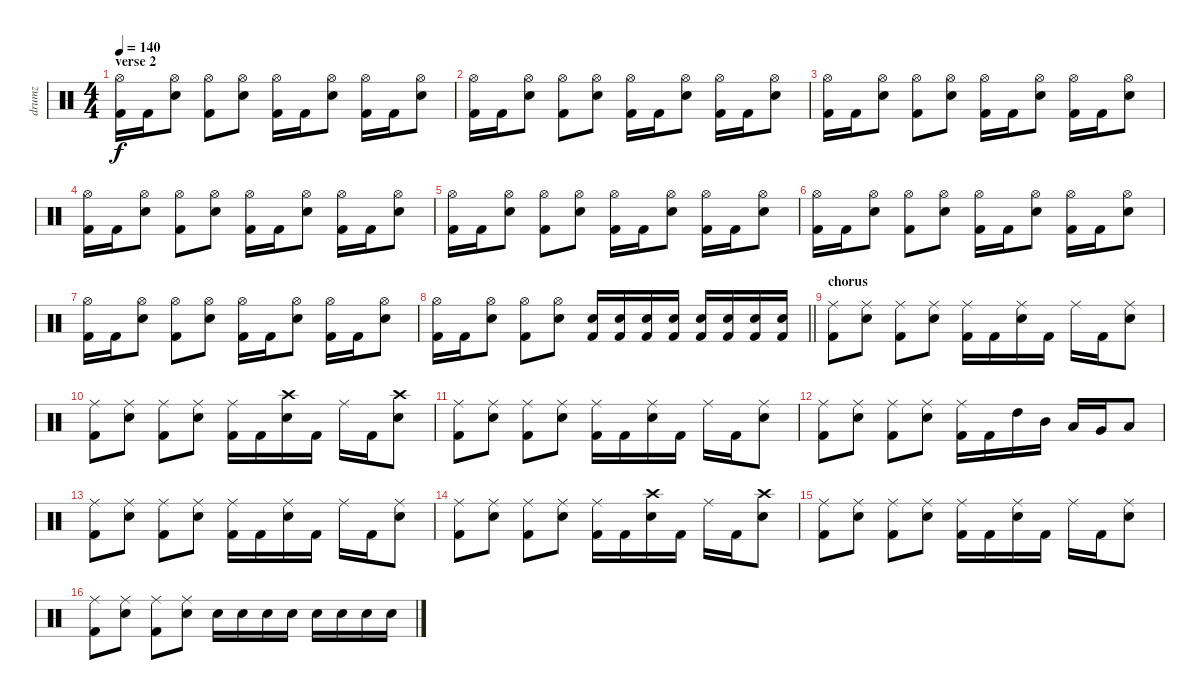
\track ("drumz" "drumz") {instrument percussion}
\staff {score}
\articulation defaults
\ts (4 4)
\section ("" "verse 2")
\tempo 140
\clef neutral
\ks c
("Hi-Hat (open)" "Kick (hit) 2").16{dy f} "Kick (hit) 2".16 ("Hi-Hat (open)" "Electric Snare (hit)").8 ("Hi-Hat (open)" "Kick (hit) 2").8 ("Hi-Hat (open)" "Electric Snare (hit)").8 ("Hi-Hat (open)" "Kick (hit) 2").16 "Kick (hit) 2".16 ("Hi-Hat (open)" "Electric Snare (hit)").8 ("Hi-Hat (open)" "Kick (hit) 2").16 "Kick (hit) 2".16 ("Hi-Hat (open)" "Electric Snare (hit)").8 |
("Hi-Hat (open)" "Kick (hit) 2").16 "Kick (hit) 2".16 ("Hi-Hat (open)" "Electric Snare (hit)").8 ("Hi-Hat (open)" "Kick (hit) 2").8 ("Hi-Hat (open)" "Electric Snare (hit)").8 ("Hi-Hat (open)" "Kick (hit) 2").16 "Kick (hit) 2".16 ("Hi-Hat (open)" "Electric Snare (hit)").8 ("Hi-Hat (open)" "Kick (hit) 2").16 "Kick (hit) 2".16 ("Hi-Hat (open)" "Electric Snare (hit)").8 |
("Hi-Hat (open)" "Kick (hit) 2").16 "Kick (hit) 2".16 ("Hi-Hat (open)" "Electric Snare (hit)").8 ("Hi-Hat (open)" "Kick (hit) 2").8 ("Hi-Hat (open)" "Electric Snare (hit)").8 ("Hi-Hat (open)" "Kick (hit) 2").16 "Kick (hit) 2".16 ("Hi-Hat (open)" "Electric Snare (hit)").8 ("Hi-Hat (open)" "Kick (hit) 2").16 "Kick (hit) 2".16 ("Hi-Hat (open)" "Electric Snare (hit)").8 |
("Hi-Hat (open)" "Kick (hit) 2").16 "Kick (hit) 2".16 ("Hi-Hat (open)" "Electric Snare (hit)").8 ("Hi-Hat (open)" "Kick (hit) 2").8 ("Hi-Hat (open)" "Electric Snare (hit)").8 ("Hi-Hat (open)" "Kick (hit) 2").16 "Kick (hit) 2".16 ("Hi-Hat (open)" "Electric Snare (hit)").8 ("Hi-Hat (open)" "Kick (hit) 2").16 "Kick (hit) 2".16 ("Hi-Hat (open)" "Electric Snare (hit)").8 |
("Hi-Hat (open)" "Kick (hit) 2").16 "Kick (hit) 2".16 ("Hi-Hat (open)" "Electric Snare (hit)").8 ("Hi-Hat (open)" "Kick (hit) 2").8 ("Hi-Hat (open)" "Electric Snare (hit)").8 ("Hi-Hat (open)" "Kick (hit) 2").16 "Kick (hit) 2".16 ("Hi-Hat (open)" "Electric Snare (hit)").8 ("Hi-Hat (open)" "Kick (hit) 2").16 "Kick (hit) 2".16 ("Hi-Hat (open)" "Electric Snare (hit)").8 |
("Hi-Hat (open)" "Kick (hit) 2").16 "Kick (hit) 2".16 ("Hi-Hat (open)" "Electric Snare (hit)").8 ("Hi-Hat (open)" "Kick (hit) 2").8 ("Hi-Hat (open)" "Electric Snare (hit)").8 ("Hi-Hat (open)" "Kick (hit) 2").16 "Kick (hit) 2".16 ("Hi-Hat (open)" "Electric Snare (hit)").8 ("Hi-Hat (open)" "Kick (hit) 2").16 "Kick (hit) 2".16 ("Hi-Hat (open)" "Electric Snare (hit)").8 |
("Hi-Hat (open)" "Kick (hit) 2").16 "Kick (hit) 2".16 ("Hi-Hat (open)" "Electric Snare (hit)").8 ("Hi-Hat (open)" "Kick (hit) 2").8 ("Hi-Hat (open)" "Electric Snare (hit)").8 ("Hi-Hat (open)" "Kick (hit) 2").16 "Kick (hit) 2".16 ("Hi-Hat (open)" "Electric Snare (hit)").8 ("Hi-Hat (open)" "Kick (hit) 2").16 "Kick (hit) 2".16 ("Hi-Hat (open)" "Electric Snare (hit)").8 |
\barLineRight lightlight
("Hi-Hat (open)" "Kick (hit) 2").16 "Kick (hit) 2".16 ("Hi-Hat (open)" "Electric Snare (hit)").8 ("Hi-Hat (open)" "Kick (hit) 2").8 ("Hi-Hat (open)" "Electric Snare (hit)").8 ("Electric Snare (hit)" "Kick (hit) 2").16 ("Electric Snare (hit)" "Kick (hit) 2").16 ("Electric Snare (hit)" "Kick (hit) 2").16 ("Electric Snare (hit)" "Kick (hit) 2").16 ("Electric Snare (hit)" "Kick (hit) 2").16 ("Electric Snare (hit)" "Kick (hit) 2").16 ("Electric Snare (hit)" "Kick (hit) 2").16 ("Electric Snare (hit)" "Kick (hit) 2").16 |
\section ("" "chorus")
("Ride (middle)" "Kick (hit) 2").8 ("Ride (middle)" "Electric Snare (hit)").8 ("Ride (middle)" "Kick (hit) 2").8 ("Ride (middle)" "Electric Snare (hit)").8 ("Ride (middle)" "Kick (hit) 2").16 "Kick (hit) 2".16 ("Ride (middle)" "Electric Snare (hit)").16 "Kick (hit) 2".16 "Ride (middle)".16 "Kick (hit) 2".16 ("Ride (middle)" "Electric Snare (hit)").8 |
("Ride (middle)" "Kick (hit) 2").8 ("Ride (middle)" "Electric Snare (hit)").8 ("Ride (middle)" "Kick (hit) 2").8 ("Ride (middle)" "Electric Snare (hit)").8 ("Ride (middle)" "Kick (hit) 2").16 "Kick (hit) 2".16 ("Crash high (hit)" "Electric Snare (hit)").16 "Kick (hit) 2".16 "Ride (middle)".16 "Kick (hit) 2".16 ("Crash high (hit)" "Electric Snare (hit)").8 |
("Ride (middle)" "Kick (hit) 2").8 ("Ride (middle)" "Electric Snare (hit)").8 ("Ride (middle)" "Kick (hit) 2").8 ("Ride (middle)" "Electric Snare (hit)").8 ("Ride (middle)" "Kick (hit) 2").16 "Kick (hit) 2".16 ("Ride (middle)" "Electric Snare (hit)").16 "Kick (hit) 2".16 "Ride (middle)".16 "Kick (hit) 2".16 ("Ride (middle)" "Electric Snare (hit)").8 |
("Ride (middle)" "Kick (hit) 2").8 ("Ride (middle)" "Electric Snare (hit)").8 ("Ride (middle)" "Kick (hit) 2").8 ("Ride (middle)" "Electric Snare (hit)").8 ("Ride (middle)" "Kick (hit) 2").16 "Kick (hit) 2".16 "High Tom (hit)".16 "Mid Tom (hit)".16 "Low Tom (hit)".16 "Very Low Tom (hit)".16 "Low Floor Tom (hit)".8 |
("Ride (middle)" "Kick (hit) 2").8 ("Ride (middle)" "Electric Snare (hit)").8 ("Ride (middle)" "Kick (hit) 2").8 ("Ride (middle)" "Electric Snare (hit)").8 ("Ride (middle)" "Kick (hit) 2").16 "Kick (hit) 2".16 ("Ride (middle)" "Electric Snare (hit)").16 "Kick (hit) 2".16 "Ride (middle)".16 "Kick (hit) 2".16 ("Ride (middle)" "Electric Snare (hit)").8 |
("Ride (middle)" "Kick (hit) 2").8 ("Ride (middle)" "Electric Snare (hit)").8 ("Ride (middle)" "Kick (hit) 2").8 ("Ride (middle)" "Electric Snare (hit)").8 ("Ride (middle)" "Kick (hit) 2").16 "Kick (hit) 2".16 ("Crash high (hit)" "Electric Snare (hit)").16 "Kick (hit) 2".16 "Ride (middle)".16 "Kick (hit) 2".16 ("Crash high (hit)" "Electric Snare (hit)").8 |
("Ride (middle)" "Kick (hit) 2").8 ("Ride (middle)" "Electric Snare (hit)").8 ("Ride (middle)" "Kick (hit) 2").8 ("Ride (middle)" "Electric Snare (hit)").8 ("Ride (middle)" "Kick (hit) 2").16 "Kick (hit) 2".16 ("Ride (middle)" "Electric Snare (hit)").16 "Kick (hit) 2".16 "Ride (middle)".16 "Kick (hit) 2".16 ("Ride (middle)" "Electric Snare (hit)").8 |
("Ride (middle)" "Kick (hit) 2").8 ("Ride (middle)" "Electric Snare (hit)").8 ("Ride (middle)" "Kick (hit) 2").8 ("Ride (middle)" "Electric Snare (hit)").8 "Electric Snare (hit)".16 "Electric Snare (hit)".16 "Electric Snare (hit)".16 "Electric Snare (hit)".16 "Electric Snare (hit)".16 "Electric Snare (hit)".16 "Electric Snare (hit)".16 "Electric Snare (hit)".16
